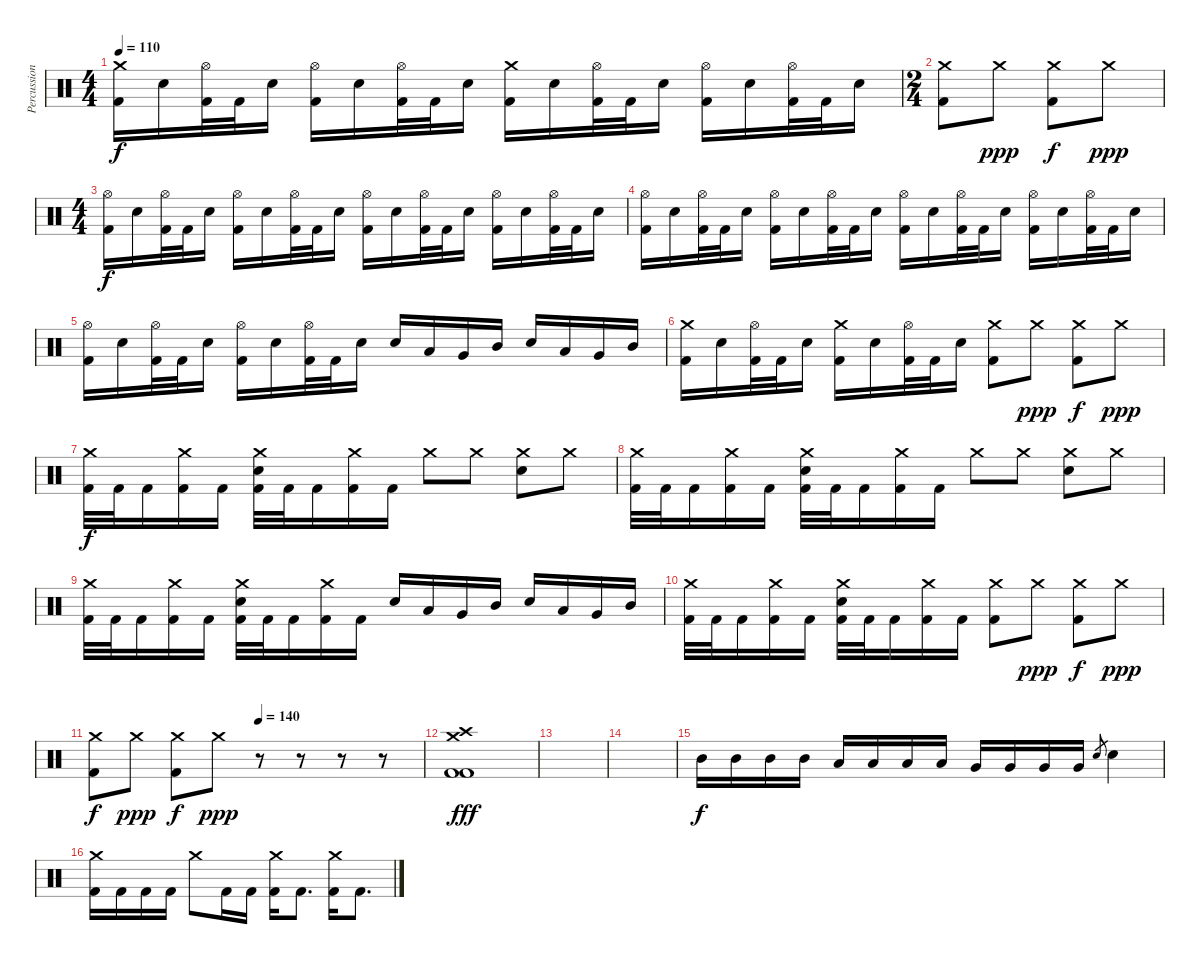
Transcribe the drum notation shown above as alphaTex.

\track ("Percussion" "Percussion") {instrument percussion}
\staff {score}
\articulation defaults
\ts (4 4)
\tempo 110
\clef neutral
\ks c
("Crash medium (hit)" "Kick (hit) 2").16{dy f} "Electric Snare (hit)".16 ("Hi-Hat (open)" "Kick (hit) 2").32 "Kick (hit) 2".32 "Electric Snare (hit)".16 ("Hi-Hat (open)" "Kick (hit) 2").16 "Electric Snare (hit)".16 ("Hi-Hat (open)" "Kick (hit) 2").32 "Kick (hit) 2".32 "Electric Snare (hit)".16 ("Crash medium (hit)" "Kick (hit) 2").16 "Electric Snare (hit)".16 ("Hi-Hat (open)" "Kick (hit) 2").32 "Kick (hit) 2".32 "Electric Snare (hit)".16 ("Hi-Hat (open)" "Kick (hit) 2").16 "Electric Snare (hit)".16 ("Hi-Hat (open)" "Kick (hit) 2").32 "Kick (hit) 2".32 "Electric Snare (hit)".16 |
\ts (2 4)
("Crash medium (hit)" "Kick (hit) 2").8 "Crash medium (hit)".8{dy ppp} ("Crash medium (hit)" "Kick (hit) 2").8{dy f} "Crash medium (hit)".8{dy ppp} |
\ts (4 4)
("Hi-Hat (open)" "Kick (hit) 2").16{dy f} "Electric Snare (hit)".16 ("Hi-Hat (open)" "Kick (hit) 2").32 "Kick (hit) 2".32 "Electric Snare (hit)".16 ("Hi-Hat (open)" "Kick (hit) 2").16 "Electric Snare (hit)".16 ("Hi-Hat (open)" "Kick (hit) 2").32 "Kick (hit) 2".32 "Electric Snare (hit)".16 ("Hi-Hat (open)" "Kick (hit) 2").16 "Electric Snare (hit)".16 ("Hi-Hat (open)" "Kick (hit) 2").32 "Kick (hit) 2".32 "Electric Snare (hit)".16 ("Hi-Hat (open)" "Kick (hit) 2").16 "Electric Snare (hit)".16 ("Hi-Hat (open)" "Kick (hit) 2").32 "Kick (hit) 2".32 "Electric Snare (hit)".16 |
("Hi-Hat (open)" "Kick (hit) 2").16 "Electric Snare (hit)".16 ("Hi-Hat (open)" "Kick (hit) 2").32 "Kick (hit) 2".32 "Electric Snare (hit)".16 ("Hi-Hat (open)" "Kick (hit) 2").16 "Electric Snare (hit)".16 ("Hi-Hat (open)" "Kick (hit) 2").32 "Kick (hit) 2".32 "Electric Snare (hit)".16 ("Hi-Hat (open)" "Kick (hit) 2").16 "Electric Snare (hit)".16 ("Hi-Hat (open)" "Kick (hit) 2").32 "Kick (hit) 2".32 "Electric Snare (hit)".16 ("Hi-Hat (open)" "Kick (hit) 2").16 "Electric Snare (hit)".16 ("Hi-Hat (open)" "Kick (hit) 2").32 "Kick (hit) 2".32 "Electric Snare (hit)".16 |
("Hi-Hat (open)" "Kick (hit) 2").16 "Electric Snare (hit)".16 ("Hi-Hat (open)" "Kick (hit) 2").32 "Kick (hit) 2".32 "Electric Snare (hit)".16 ("Hi-Hat (open)" "Kick (hit) 2").16 "Electric Snare (hit)".16 ("Hi-Hat (open)" "Kick (hit) 2").32 "Kick (hit) 2".32 "Electric Snare (hit)".16 "Electric Snare (hit)".16 "Low Tom (hit)".16 "Very Low Tom (hit)".16 "Mid Tom (hit)".16 "Electric Snare (hit)".16 "Low Tom (hit)".16 "Very Low Tom (hit)".16 "Mid Tom (hit)".16 |
("Crash medium (hit)" "Kick (hit) 2").16 "Electric Snare (hit)".16 ("Hi-Hat (open)" "Kick (hit) 2").32 "Kick (hit) 2".32 "Electric Snare (hit)".16 ("Crash medium (hit)" "Kick (hit) 2").16 "Electric Snare (hit)".16 ("Hi-Hat (open)" "Kick (hit) 2").32 "Kick (hit) 2".32 "Electric Snare (hit)".16 ("Crash medium (hit)" "Kick (hit) 2").8 "Crash medium (hit)".8{dy ppp} ("Crash medium (hit)" "Kick (hit) 2").8{dy f} "Crash medium (hit)".8{dy ppp} |
("Crash medium (hit)" "Kick (hit) 2").32{dy f} "Kick (hit) 2".32 "Kick (hit) 2".16 ("Crash medium (hit)" "Kick (hit) 2").16 "Kick (hit) 2".16 ("Crash medium (hit)" "Electric Snare (hit)" "Kick (hit) 2").32 "Kick (hit) 2".32 "Kick (hit) 2".16 ("Crash medium (hit)" "Kick (hit) 2").16 "Kick (hit) 2".16 "Crash medium (hit)".8 "Crash medium (hit)".8 ("Crash medium (hit)" "Electric Snare (hit)").8 "Crash medium (hit)".8 |
("Crash medium (hit)" "Kick (hit) 2").32 "Kick (hit) 2".32 "Kick (hit) 2".16 ("Crash medium (hit)" "Kick (hit) 2").16 "Kick (hit) 2".16 ("Crash medium (hit)" "Electric Snare (hit)" "Kick (hit) 2").32 "Kick (hit) 2".32 "Kick (hit) 2".16 ("Crash medium (hit)" "Kick (hit) 2").16 "Kick (hit) 2".16 "Crash medium (hit)".8 "Crash medium (hit)".8 ("Crash medium (hit)" "Electric Snare (hit)").8 "Crash medium (hit)".8 |
("Crash medium (hit)" "Kick (hit) 2").32 "Kick (hit) 2".32 "Kick (hit) 2".16 ("Crash medium (hit)" "Kick (hit) 2").16 "Kick (hit) 2".16 ("Crash medium (hit)" "Electric Snare (hit)" "Kick (hit) 2").32 "Kick (hit) 2".32 "Kick (hit) 2".16 ("Crash medium (hit)" "Kick (hit) 2").16 "Kick (hit) 2".16 "Electric Snare (hit)".16 "Low Tom (hit)".16 "Very Low Tom (hit)".16 "Mid Tom (hit)".16 "Electric Snare (hit)".16 "Low Tom (hit)".16 "Very Low Tom (hit)".16 "Mid Tom (hit)".16 |
("Crash medium (hit)" "Kick (hit) 2").32 "Kick (hit) 2".32 "Kick (hit) 2".16 ("Crash medium (hit)" "Kick (hit) 2").16 "Kick (hit) 2".16 ("Crash medium (hit)" "Electric Snare (hit)" "Kick (hit) 2").32 "Kick (hit) 2".32 "Kick (hit) 2".16 ("Crash medium (hit)" "Kick (hit) 2").16 "Kick (hit) 2".16 ("Crash medium (hit)" "Kick (hit) 2").8 "Crash medium (hit)".8{dy ppp} ("Crash medium (hit)" "Kick (hit) 2").8{dy f} "Crash medium (hit)".8{dy ppp} |
\tempo (140 0.5)
("Crash medium (hit)" "Kick (hit) 2").8{dy f} "Crash medium (hit)".8{dy ppp} ("Crash medium (hit)" "Kick (hit) 2").8{dy f} "Crash medium (hit)".8{dy ppp} r.8 r.8 r.8 r.8 |
("Crash medium (hit)" "Crash high (hit)" "Kick (hit) 2" "Kick (hit) 2").1{dy fff} |
|
|
"Mid Tom (hit)".16{dy f} "Mid Tom (hit)".16 "Mid Tom (hit)".16 "Mid Tom (hit)".16 "Low Tom (hit)".16 "Low Tom (hit)".16 "Low Tom (hit)".16 "Low Tom (hit)".16 "Very Low Tom (hit)".16 "Very Low Tom (hit)".16 "Very Low Tom (hit)".16 "Very Low Tom (hit)".16 "Electric Snare (hit)".8{gr} "Electric Snare (hit)".4 |
("Crash medium (hit)" "Kick (hit) 2").16 "Kick (hit) 2".16 "Kick (hit) 2".16 "Kick (hit) 2".16 "Crash medium (hit)".8 "Kick (hit) 2".16 "Kick (hit) 2".16 ("Crash medium (hit)" "Kick (hit) 2").16 "Kick (hit) 2".8{d} ("Crash medium (hit)" "Kick (hit) 2").16 "Kick (hit) 2".8{d}
